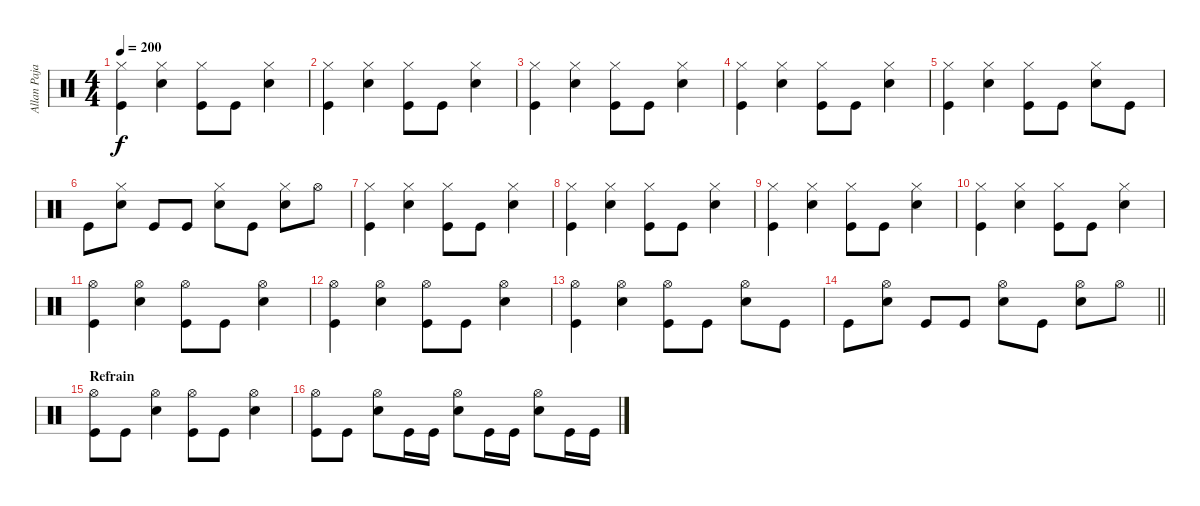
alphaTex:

\track ("Allan Pajarin (Drums)" "Allan Paja") {instrument percussion}
\staff {score}
\articulation defaults
\ts (4 4)
\tempo 200
\clef neutral
\ks c
("Hi-Hat (closed)" "Kick (hit)").4{dy f} ("Hi-Hat (closed)" "Electric Snare (hit)").4 ("Hi-Hat (closed)" "Kick (hit)").8 "Kick (hit)".8 ("Hi-Hat (closed)" "Electric Snare (hit)").4 |
("Hi-Hat (closed)" "Kick (hit)").4 ("Hi-Hat (closed)" "Electric Snare (hit)").4 ("Hi-Hat (closed)" "Kick (hit)").8 "Kick (hit)".8 ("Hi-Hat (closed)" "Electric Snare (hit)").4 |
("Hi-Hat (closed)" "Kick (hit)").4 ("Hi-Hat (closed)" "Electric Snare (hit)").4 ("Hi-Hat (closed)" "Kick (hit)").8 "Kick (hit)".8 ("Hi-Hat (closed)" "Electric Snare (hit)").4 |
("Hi-Hat (closed)" "Kick (hit)").4 ("Hi-Hat (closed)" "Electric Snare (hit)").4 ("Hi-Hat (closed)" "Kick (hit)").8 "Kick (hit)".8 ("Hi-Hat (closed)" "Electric Snare (hit)").4 |
("Hi-Hat (closed)" "Kick (hit)").4 ("Hi-Hat (closed)" "Electric Snare (hit)").4 ("Hi-Hat (closed)" "Kick (hit)").8 "Kick (hit)".8 ("Hi-Hat (closed)" "Electric Snare (hit)").8 "Kick (hit)".8 |
"Kick (hit)".8 ("Hi-Hat (closed)" "Electric Snare (hit)").8 "Kick (hit)".8 "Kick (hit)".8 ("Hi-Hat (closed)" "Electric Snare (hit)").8 "Kick (hit)".8 ("Hi-Hat (closed)" "Electric Snare (hit)").8 "Hi-Hat (open)".8 |
("Hi-Hat (closed)" "Kick (hit)").4 ("Hi-Hat (closed)" "Electric Snare (hit)").4 ("Hi-Hat (closed)" "Kick (hit)").8 "Kick (hit)".8 ("Hi-Hat (closed)" "Electric Snare (hit)").4 |
("Hi-Hat (closed)" "Kick (hit)").4 ("Hi-Hat (closed)" "Electric Snare (hit)").4 ("Hi-Hat (closed)" "Kick (hit)").8 "Kick (hit)".8 ("Hi-Hat (closed)" "Electric Snare (hit)").4 |
("Hi-Hat (closed)" "Kick (hit)").4 ("Hi-Hat (closed)" "Electric Snare (hit)").4 ("Hi-Hat (closed)" "Kick (hit)").8 "Kick (hit)".8 ("Hi-Hat (closed)" "Electric Snare (hit)").4 |
("Hi-Hat (closed)" "Kick (hit)").4 ("Hi-Hat (closed)" "Electric Snare (hit)").4 ("Hi-Hat (closed)" "Kick (hit)").8 "Kick (hit)".8 ("Hi-Hat (closed)" "Electric Snare (hit)").4 |
("Hi-Hat (open)" "Kick (hit)").4 ("Hi-Hat (open)" "Electric Snare (hit)").4 ("Hi-Hat (open)" "Kick (hit)").8 "Kick (hit)".8 ("Hi-Hat (open)" "Electric Snare (hit)").4 |
("Hi-Hat (open)" "Kick (hit)").4 ("Hi-Hat (open)" "Electric Snare (hit)").4 ("Hi-Hat (open)" "Kick (hit)").8 "Kick (hit)".8 ("Hi-Hat (open)" "Electric Snare (hit)").4 |
("Hi-Hat (open)" "Kick (hit)").4 ("Hi-Hat (open)" "Electric Snare (hit)").4 ("Hi-Hat (open)" "Kick (hit)").8 "Kick (hit)".8 ("Hi-Hat (open)" "Electric Snare (hit)").8 "Kick (hit)".8 |
\barLineRight lightlight "Kick (hit)".8
("Hi-Hat (open)" "Electric Snare (hit)").8 "Kick (hit)".8 "Kick (hit)".8 ("Hi-Hat (open)" "Electric Snare (hit)").8 "Kick (hit)".8 ("Hi-Hat (open)" "Electric Snare (hit)").8 "Hi-Hat (open)".8 |
\section ("" "Refrain")
("Kick (hit)" "Hi-Hat (open)").8 "Kick (hit)".8 ("Hi-Hat (open)" "Electric Snare (hit)").4 ("Hi-Hat (open)" "Kick (hit)").8 "Kick (hit)".8 ("Hi-Hat (open)" "Electric Snare (hit)").4 |
("Kick (hit)" "Hi-Hat (open)").8 "Kick (hit)".8 ("Hi-Hat (open)" "Electric Snare (hit)").8 "Kick (hit)".16 "Kick (hit)".16 ("Hi-Hat (open)" "Electric Snare (hit)").8 "Kick (hit)".16 "Kick (hit)".16 ("Hi-Hat (open)" "Electric Snare (hit)").8 "Kick (hit)".16 "Kick (hit)".16
